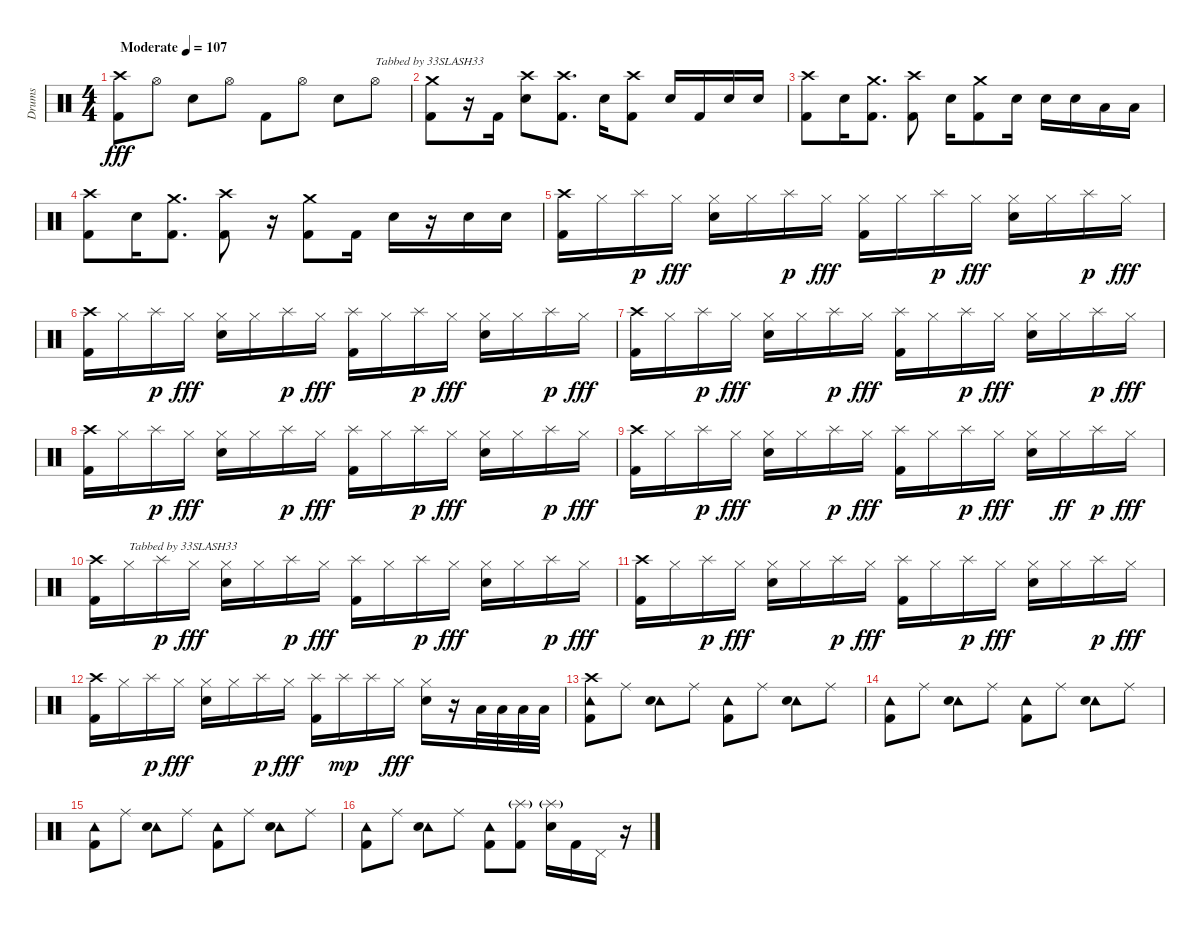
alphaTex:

\track ("Drums" "Drums") {instrument percussion}
\staff {score}
\articulation defaults
\ts (4 4)
\tempo (107 "Moderate")
\clef neutral
\ks c
("Crash high (hit)" "Kick (hit) 2").8{dy fff} "Hi-Hat (open)".8 "Snare (hit) 2".8 "Hi-Hat (open)".8 "Kick (hit) 2".8 "Hi-Hat (open)".8 "Snare (hit) 2".8 "Hi-Hat (open)".8{txt "Tabbed by 33SLASH33"} |
("Crash medium (hit)" "Kick (hit) 2").8 r.16 "Kick (hit) 2".16 ("Crash high (hit)" "Snare (hit) 2").8 ("Crash high (hit)" "Kick (hit) 2").8{d} "Snare (hit) 2".16 ("Crash high (hit)" "Kick (hit) 2").8 "Snare (hit) 2".16 "Kick (hit) 2".16 "Snare (hit) 2".16 "Snare (hit) 2".16 |
("Crash high (hit)" "Kick (hit) 2").8 "Snare (hit) 2".16 ("Crash medium (hit)" "Kick (hit) 2").8{d} ("Crash high (hit)" "Kick (hit) 2").8 "Snare (hit) 2".16 ("Crash medium (hit)" "Kick (hit) 2").8 "Snare (hit) 2".16 "Snare (hit) 2".16 "Snare (hit) 2".16 "Low Tom (hit)".16 "Low Tom (hit)".16 |
("Crash high (hit)" "Kick (hit) 2").8 "Snare (hit) 2".16 ("Crash medium (hit)" "Kick (hit) 2").8{d} ("Crash high (hit)" "Kick (hit) 2").8 r.16 ("Crash medium (hit)" "Kick (hit) 2").8 "Kick (hit) 2".16 "Snare (hit) 2".16 r.16 "Snare (hit) 2".16 "Snare (hit) 2".16 |
("Crash high (hit)" "Kick (hit) 2").16 "Hi-Hat (closed)".16 "Splash (hit)".16{dy p} "Hi-Hat (closed)".16{dy fff} ("Hi-Hat (closed)" "Snare (hit) 2").16 "Hi-Hat (closed)".16 "Splash (hit)".16{dy p} "Hi-Hat (closed)".16{dy fff} ("Hi-Hat (closed)" "Kick (hit) 2").16 "Hi-Hat (closed)".16 "Splash (hit)".16{dy p} "Hi-Hat (closed)".16{dy fff} ("Hi-Hat (closed)" "Snare (hit) 2").16 "Hi-Hat (closed)".16 "Splash (hit)".16{dy p} "Hi-Hat (closed)".16{dy fff} |
("Crash high (hit)" "Kick (hit) 2").16 "Hi-Hat (closed)".16 "Splash (hit)".16{dy p} "Hi-Hat (closed)".16{dy fff} ("Hi-Hat (closed)" "Snare (hit) 2").16 "Hi-Hat (closed)".16 "Splash (hit)".16{dy p} "Hi-Hat (closed)".16{dy fff} ("Splash (hit)" "Kick (hit) 2").16 "Hi-Hat (closed)".16 "Splash (hit)".16{dy p} "Hi-Hat (closed)".16{dy fff} ("Hi-Hat (closed)" "Snare (hit) 2").16 "Hi-Hat (closed)".16 "Splash (hit)".16{dy p} "Hi-Hat (closed)".16{dy fff} |
("Crash high (hit)" "Kick (hit) 2").16 "Hi-Hat (closed)".16 "Splash (hit)".16{dy p} "Hi-Hat (closed)".16{dy fff} ("Hi-Hat (closed)" "Snare (hit) 2").16 "Hi-Hat (closed)".16 "Splash (hit)".16{dy p} "Hi-Hat (closed)".16{dy fff} ("Splash (hit)" "Kick (hit) 2").16 "Hi-Hat (closed)".16 "Splash (hit)".16{dy p} "Hi-Hat (closed)".16{dy fff} ("Hi-Hat (closed)" "Snare (hit) 2").16 "Hi-Hat (closed)".16 "Splash (hit)".16{dy p} "Hi-Hat (closed)".16{dy fff} |
("Crash high (hit)" "Kick (hit) 2").16 "Hi-Hat (closed)".16 "Splash (hit)".16{dy p} "Hi-Hat (closed)".16{dy fff} ("Hi-Hat (closed)" "Snare (hit) 2").16 "Hi-Hat (closed)".16 "Splash (hit)".16{dy p} "Hi-Hat (closed)".16{dy fff} ("Splash (hit)" "Kick (hit) 2").16 "Hi-Hat (closed)".16 "Splash (hit)".16{dy p} "Hi-Hat (closed)".16{dy fff} ("Hi-Hat (closed)" "Snare (hit) 2").16 "Hi-Hat (closed)".16 "Splash (hit)".16{dy p} "Hi-Hat (closed)".16{dy fff} |
("Crash high (hit)" "Kick (hit) 2").16 "Hi-Hat (closed)".16 "Splash (hit)".16{dy p} "Hi-Hat (closed)".16{dy fff} ("Hi-Hat (closed)" "Snare (hit) 2").16 "Hi-Hat (closed)".16 "Splash (hit)".16{dy p} "Hi-Hat (closed)".16{dy fff} ("Splash (hit)" "Kick (hit) 2").16 "Hi-Hat (closed)".16 "Splash (hit)".16{dy p} "Hi-Hat (closed)".16{dy fff} ("Hi-Hat (closed)" "Snare (hit) 2").16 "Hi-Hat (closed)".16{dy ff} "Splash (hit)".16{dy p} "Hi-Hat (closed)".16{dy fff} |
("Crash high (hit)" "Kick (hit) 2").16 "Hi-Hat (closed)".16{txt "Tabbed by 33SLASH33"} "Splash (hit)".16{dy p} "Hi-Hat (closed)".16{dy fff} ("Hi-Hat (closed)" "Snare (hit) 2").16 "Hi-Hat (closed)".16 "Splash (hit)".16{dy p} "Hi-Hat (closed)".16{dy fff} ("Splash (hit)" "Kick (hit) 2").16 "Hi-Hat (closed)".16 "Splash (hit)".16{dy p} "Hi-Hat (closed)".16{dy fff} ("Hi-Hat (closed)" "Snare (hit) 2").16 "Hi-Hat (closed)".16 "Splash (hit)".16{dy p} "Hi-Hat (closed)".16{dy fff} |
("Crash high (hit)" "Kick (hit) 2").16 "Hi-Hat (closed)".16 "Splash (hit)".16{dy p} "Hi-Hat (closed)".16{dy fff} ("Hi-Hat (closed)" "Snare (hit) 2").16 "Hi-Hat (closed)".16 "Splash (hit)".16{dy p} "Hi-Hat (closed)".16{dy fff} ("Splash (hit)" "Kick (hit) 2").16 "Hi-Hat (closed)".16 "Splash (hit)".16{dy p} "Hi-Hat (closed)".16{dy fff} ("Hi-Hat (closed)" "Snare (hit) 2").16 "Hi-Hat (closed)".16 "Splash (hit)".16{dy p} "Hi-Hat (closed)".16{dy fff} |
("Crash high (hit)" "Kick (hit) 2").16 "Hi-Hat (closed)".16 "Splash (hit)".16{dy p} "Hi-Hat (closed)".16{dy fff} ("Hi-Hat (closed)" "Snare (hit) 2").16 "Hi-Hat (closed)".16 "Splash (hit)".16{dy p} "Hi-Hat (closed)".16{dy fff} ("Splash (hit)" "Kick (hit) 2").16 "Splash (hit)".16{dy mp} "Splash (hit)".16 "Hi-Hat (closed)".16{dy fff} ("Hi-Hat (closed)" "Snare (hit) 2").16 r.16 "Low Tom (hit)".32 "Low Tom (hit)".32 "Low Tom (hit)".32 "Low Tom (hit)".32 |
("Crash high (hit)" "Tambourine (hit)" "Kick (hit) 2").8 "Ride (middle)".8 ("Tambourine (hit)" "Snare (hit) 2").8 "Ride (middle)".8 ("Tambourine (hit)" "Kick (hit) 2").8 "Ride (middle)".8 ("Tambourine (hit)" "Snare (hit) 2").8 "Ride (middle)".8 |
("Tambourine (hit)" "Kick (hit) 2").8 "Ride (middle)".8 ("Tambourine (hit)" "Snare (hit) 2").8 "Ride (middle)".8 ("Tambourine (hit)" "Kick (hit) 2").8 "Ride (middle)".8 ("Tambourine (hit)" "Snare (hit) 2").8 "Ride (middle)".8 |
("Tambourine (hit)" "Kick (hit) 2").8 "Ride (middle)".8 ("Tambourine (hit)" "Snare (hit) 2").8 "Ride (middle)".8 ("Tambourine (hit)" "Kick (hit) 2").8 "Ride (middle)".8 ("Tambourine (hit)" "Snare (hit) 2").8 "Ride (middle)".8 |
("Tambourine (hit)" "Kick (hit) 2").8 "Ride (middle)".8 ("Tambourine (hit)" "Snare (hit) 2").8 "Ride (middle)".8 ("Tambourine (hit)" "Kick (hit) 2").8 ("Splash (hit)"{g} "Kick (hit) 2").8 ("Splash (hit)"{g} "Snare (hit) 2").16 "Kick (hit) 2".16 "Pedal Hi-Hat (hit)".16 r.16
